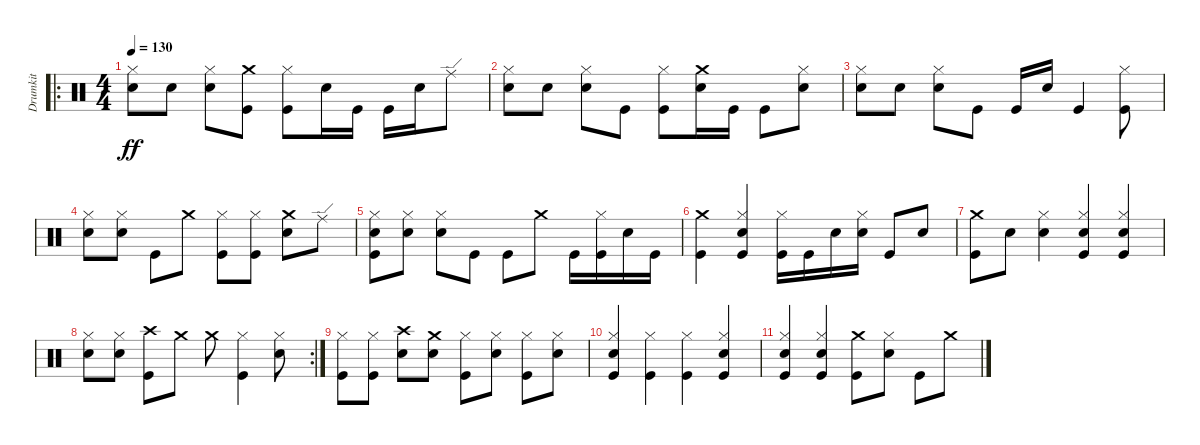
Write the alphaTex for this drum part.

\track ("Drumkit" "Drumkit") {instrument percussion}
\staff {score}
\articulation defaults
\ro
\ts (4 4)
\tempo 130
\clef neutral
\ks c
("Snare (hit) 2" "Hi-Hat (closed)").8{dy ff} "Snare (hit) 2".8 ("Hi-Hat (closed)" "Snare (hit) 2").8 ("Kick (hit)" "Crash medium (hit)").8 ("Kick (hit)" "Hi-Hat (closed)").8 "Snare (hit) 2".16 "Kick (hit)".16 "Kick (hit)".16 "Snare (hit) 2".16 "Ride (edge)".8 |
("Snare (hit) 2" "Hi-Hat (closed)").8 "Snare (hit) 2".8 ("Hi-Hat (closed)" "Snare (hit) 2").8 "Kick (hit)".8 ("Kick (hit)" "Hi-Hat (closed)").8 ("Snare (hit) 2" "Crash medium (hit)").16 "Kick (hit)".16 "Kick (hit)".8 ("Snare (hit) 2" "Hi-Hat (closed)").8 |
("Snare (hit) 2" "Hi-Hat (closed)").8 "Snare (hit) 2".8 ("Hi-Hat (closed)" "Snare (hit) 2").8 "Kick (hit)".8 "Kick (hit)".16 "Snare (hit) 2".16 "Kick (hit)".4 ("Kick (hit)" "Hi-Hat (closed)").8 |
("Hi-Hat (closed)" "Snare (hit) 2").8 ("Hi-Hat (closed)" "Snare (hit) 2").8 "Kick (hit)".8 "Crash medium (hit)".8 ("Kick (hit)" "Hi-Hat (closed)").8 ("Kick (hit)" "Hi-Hat (closed)").8 ("Snare (hit) 2" "Crash medium (hit)").8 "Ride (edge)".8 |
("Snare (hit) 2" "Kick (hit)" "Hi-Hat (closed)").8 ("Snare (hit) 2" "Hi-Hat (closed)").8 ("Snare (hit) 2" "Hi-Hat (closed)").8 "Kick (hit)".8 "Kick (hit)".8 "Crash medium (hit)".8 "Kick (hit)".16 ("Kick (hit)" "Hi-Hat (closed)").16 "Snare (hit) 2".16 "Kick (hit)".16 |
("Kick (hit)" "Crash medium (hit)").4 ("Kick (hit)" "Hi-Hat (closed)" "Snare (hit) 2").4 ("Kick (hit)" "Hi-Hat (closed)").16 "Kick (hit)".16 "Snare (hit) 2".16 ("Snare (hit) 2" "Hi-Hat (closed)").16 "Kick (hit)".8 "Snare (hit) 2".8 |
("Kick (hit)" "Crash medium (hit)").8 "Snare (hit) 2".8 ("Snare (hit) 2" "Hi-Hat (closed)").4 ("Snare (hit) 2" "Hi-Hat (closed)" "Kick (hit)").4 ("Hi-Hat (closed)" "Snare (hit) 2" "Kick (hit)").4 |
\rc 2
("Hi-Hat (closed)" "Snare (hit) 2").8 ("Hi-Hat (closed)" "Snare (hit) 2").8 ("Kick (hit)" "Crash high (hit)").8 "Crash medium (hit)".8 "Crash medium (hit)".8 ("Hi-Hat (closed)" "Kick (hit)").4 ("Hi-Hat (closed)" "Snare (hit) 2").8 |
("Kick (hit)" "Hi-Hat (closed)").8 ("Kick (hit)" "Hi-Hat (closed)").8 ("Snare (hit) 2" "Crash high (hit)").8 ("Snare (hit) 2" "Crash medium (hit)").8 ("Kick (hit)" "Hi-Hat (closed)").8 ("Snare (hit) 2" "Hi-Hat (closed)").8 ("Kick (hit)" "Hi-Hat (closed)").8 ("Snare (hit) 2" "Hi-Hat (closed)").8 |
("Hi-Hat (closed)" "Snare (hit) 2" "Kick (hit)").4 ("Kick (hit)" "Hi-Hat (closed)").4 ("Kick (hit)" "Hi-Hat (closed)").4 ("Kick (hit)" "Snare (hit) 2" "Hi-Hat (closed)").4 |
("Kick (hit)" "Snare (hit) 2" "Hi-Hat (closed)").4 ("Kick (hit)" "Snare (hit) 2" "Hi-Hat (closed)").4 ("Kick (hit)" "Crash medium (hit)").8 ("Snare (hit) 2" "Hi-Hat (closed)").8 "Kick (hit)".8 "Crash medium (hit)".8
